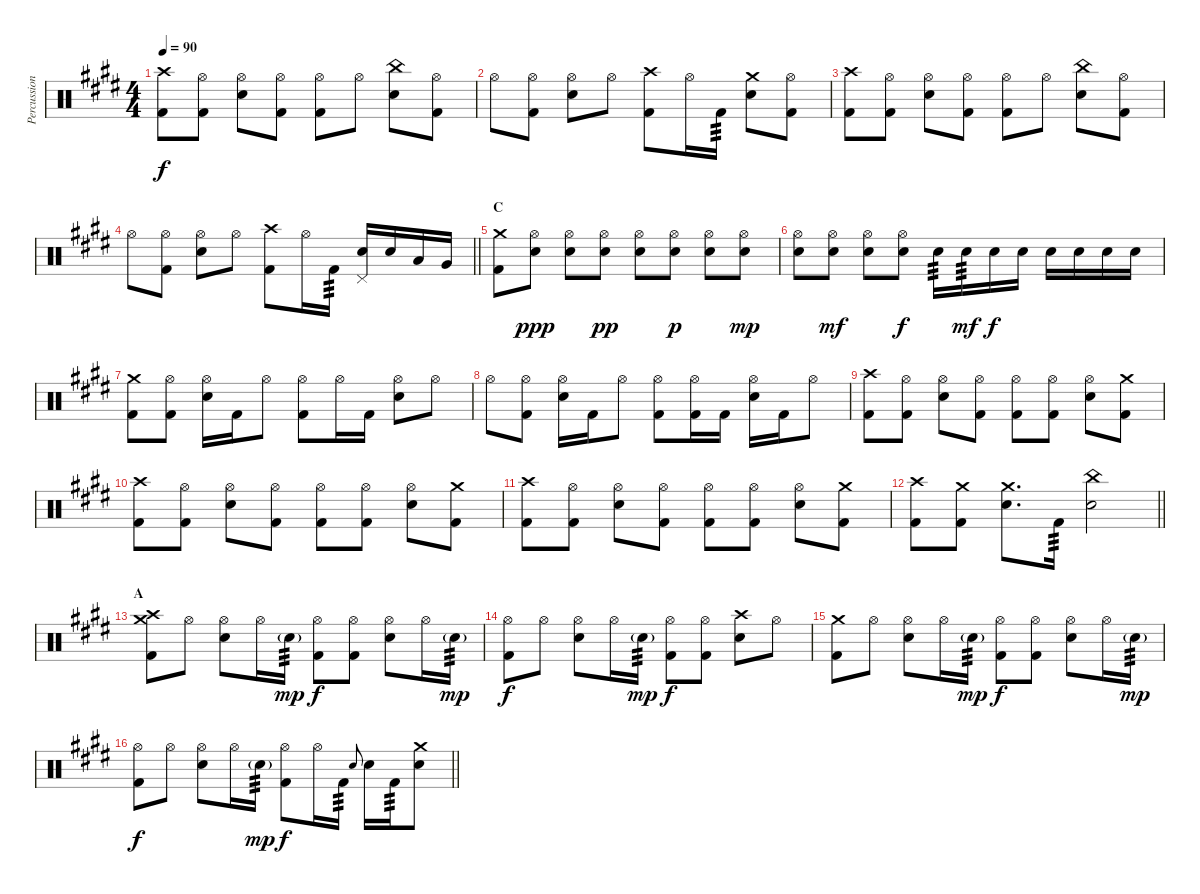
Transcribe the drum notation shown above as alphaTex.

\track ("Percussion" "Percussion") {instrument percussion}
\staff {score}
\articulation defaults
\ts (4 4)
\tempo 90
\clef neutral
\ks c#minor
("Crash high (hit)" "Kick (hit) 2").8{dy f} ("Hi-Hat (open)" "Kick (hit) 2").8 ("Hi-Hat (open)" "Snare (hit) 2").8 ("Hi-Hat (open)" "Kick (hit) 2").8 ("Hi-Hat (open)" "Kick (hit) 2").8 "Hi-Hat (open)".8 ("China (hit)" "Snare (hit) 2").8 ("Hi-Hat (open)" "Kick (hit) 2").8 |
"Hi-Hat (open)".8 ("Hi-Hat (open)" "Kick (hit) 2").8 ("Hi-Hat (open)" "Snare (hit) 2").8 "Hi-Hat (open)".8 ("Crash high (hit)" "Kick (hit) 2").8 "Hi-Hat (open)".16 "Kick (hit) 2".16{tp 3} ("Crash medium (hit)" "Snare (hit) 2").8 ("Hi-Hat (open)" "Kick (hit) 2").8 |
("Crash high (hit)" "Kick (hit) 2").8 ("Hi-Hat (open)" "Kick (hit) 2").8 ("Hi-Hat (open)" "Snare (hit) 2").8 ("Hi-Hat (open)" "Kick (hit) 2").8 ("Hi-Hat (open)" "Kick (hit) 2").8 "Hi-Hat (open)".8 ("China (hit)" "Snare (hit) 2").8 ("Hi-Hat (open)" "Kick (hit) 2").8 |
\barLineRight lightlight "Hi-Hat (open)".8
("Hi-Hat (open)" "Kick (hit) 2").8 ("Hi-Hat (open)" "Snare (hit) 2").8 "Hi-Hat (open)".8 ("Crash high (hit)" "Kick (hit) 2").8 "Hi-Hat (open)".16 "Kick (hit) 2".16{tp 3} ("Pedal Hi-Hat (hit)" "Snare (hit) 2").16 "Snare (hit) 2".16 "Low Tom (hit)".16 "Very Low Tom (hit)".16 |
\section ("" "C")
("Crash medium (hit)" "Kick (hit) 2").8 ("Hi-Hat (open)" "Snare (hit) 2").8{dy ppp} ("Hi-Hat (open)" "Snare (hit) 2").8 ("Hi-Hat (open)" "Snare (hit) 2").8{dy pp} ("Hi-Hat (open)" "Snare (hit) 2").8 ("Hi-Hat (open)" "Snare (hit) 2").8{dy p} ("Hi-Hat (open)" "Snare (hit) 2").8 ("Hi-Hat (open)" "Snare (hit) 2").8{dy mp} |
("Hi-Hat (open)" "Snare (hit) 2").8 ("Hi-Hat (open)" "Snare (hit) 2").8{dy mf} ("Hi-Hat (open)" "Snare (hit) 2").8 ("Hi-Hat (open)" "Snare (hit) 2").8{dy f} "Snare (hit) 2".16{tp 3} "Snare (hit) 2".16{tp 3 dy mf} "Snare (hit) 2".16{dy f} "Snare (hit) 2".16 "Snare (hit) 2".16 "Snare (hit) 2".16 "Snare (hit) 2".16 "Snare (hit) 2".16 |
("Crash medium (hit)" "Kick (hit) 2").8 ("Hi-Hat (open)" "Kick (hit) 2").8 ("Hi-Hat (open)" "Snare (hit) 2").16 "Kick (hit) 2".16 "Hi-Hat (open)".8 ("Hi-Hat (open)" "Kick (hit) 2").8 "Hi-Hat (open)".16 "Kick (hit) 2".16 ("Hi-Hat (open)" "Snare (hit) 2").8 "Hi-Hat (open)".8 |
"Hi-Hat (open)".8 ("Hi-Hat (open)" "Kick (hit) 2").8 ("Hi-Hat (open)" "Snare (hit) 2").16 "Kick (hit) 2".16 "Hi-Hat (open)".8 ("Hi-Hat (open)" "Kick (hit) 2").8 ("Hi-Hat (open)" "Kick (hit) 2").16 "Kick (hit) 2".16 ("Hi-Hat (open)" "Snare (hit) 2").16 "Kick (hit) 2".16 "Hi-Hat (open)".8 |
("Crash high (hit)" "Kick (hit) 2").8 ("Hi-Hat (open)" "Kick (hit) 2").8 ("Hi-Hat (open)" "Snare (hit) 2").8 ("Hi-Hat (open)" "Kick (hit) 2").8 ("Hi-Hat (open)" "Kick (hit) 2").8 ("Hi-Hat (open)" "Kick (hit) 2").8 ("Hi-Hat (open)" "Snare (hit) 2").8 ("Crash medium (hit)" "Kick (hit) 2").8 |
("Crash high (hit)" "Kick (hit) 2").8 ("Hi-Hat (open)" "Kick (hit) 2").8 ("Hi-Hat (open)" "Snare (hit) 2").8 ("Hi-Hat (open)" "Kick (hit) 2").8 ("Hi-Hat (open)" "Kick (hit) 2").8 ("Hi-Hat (open)" "Kick (hit) 2").8 ("Hi-Hat (open)" "Snare (hit) 2").8 ("Crash medium (hit)" "Kick (hit) 2").8 |
("Crash high (hit)" "Kick (hit) 2").8 ("Hi-Hat (open)" "Kick (hit) 2").8 ("Hi-Hat (open)" "Snare (hit) 2").8 ("Hi-Hat (open)" "Kick (hit) 2").8 ("Hi-Hat (open)" "Kick (hit) 2").8 ("Hi-Hat (open)" "Kick (hit) 2").8 ("Hi-Hat (open)" "Snare (hit) 2").8 ("Crash medium (hit)" "Kick (hit) 2").8 |
\barLineRight lightlight
("Crash high (hit)" "Kick (hit) 2").8 ("Crash medium (hit)" "Kick (hit) 2").8 ("Crash medium (hit)" "Snare (hit) 2").8{d} "Kick (hit) 2".16{tp 3} ("China (hit)" "Snare (hit) 2").2 |
\section ("" "A")
("Crash medium (hit)" "Crash high (hit)" "Kick (hit) 2").8 "Hi-Hat (open)".8 ("Hi-Hat (open)" "Snare (hit) 2").8 "Hi-Hat (open)".16 "Snare (hit) 2"{g}.16{tp 3 dy mp} ("Hi-Hat (open)" "Kick (hit) 2").8{dy f} ("Hi-Hat (open)" "Kick (hit) 2").8 ("Hi-Hat (open)" "Snare (hit) 2").8 "Hi-Hat (open)".16 "Snare (hit) 2"{g}.16{tp 3 dy mp} |
("Hi-Hat (open)" "Kick (hit) 2").8{dy f} "Hi-Hat (open)".8 ("Hi-Hat (open)" "Snare (hit) 2").8 "Hi-Hat (open)".16 "Snare (hit) 2"{g}.16{tp 3 dy mp} ("Hi-Hat (open)" "Kick (hit) 2").8{dy f} ("Hi-Hat (open)" "Kick (hit) 2").8 ("Crash high (hit)" "Snare (hit) 2").8 "Hi-Hat (open)".8 |
("Crash medium (hit)" "Kick (hit) 2").8 "Hi-Hat (open)".8 ("Hi-Hat (open)" "Snare (hit) 2").8 "Hi-Hat (open)".16 "Snare (hit) 2"{g}.16{tp 3 dy mp} ("Hi-Hat (open)" "Kick (hit) 2").8{dy f} ("Hi-Hat (open)" "Kick (hit) 2").8 ("Hi-Hat (open)" "Snare (hit) 2").8 "Hi-Hat (open)".16 "Snare (hit) 2"{g}.16{tp 3 dy mp} |
\barLineRight lightlight
("Hi-Hat (open)" "Kick (hit) 2").8{dy f} "Hi-Hat (open)".8 ("Hi-Hat (open)" "Snare (hit) 2").8 "Hi-Hat (open)".16 "Snare (hit) 2"{g}.16{tp 3 dy mp} ("Hi-Hat (open)" "Kick (hit) 2").8{dy f} "Hi-Hat (open)".16 "Kick (hit) 2".16{tp 3} "Snare (hit) 2".8{gr onbeat} "Snare (hit) 2".16 "Kick (hit) 2".16{tp 3} ("Crash medium (hit)" "Snare (hit) 2").8
